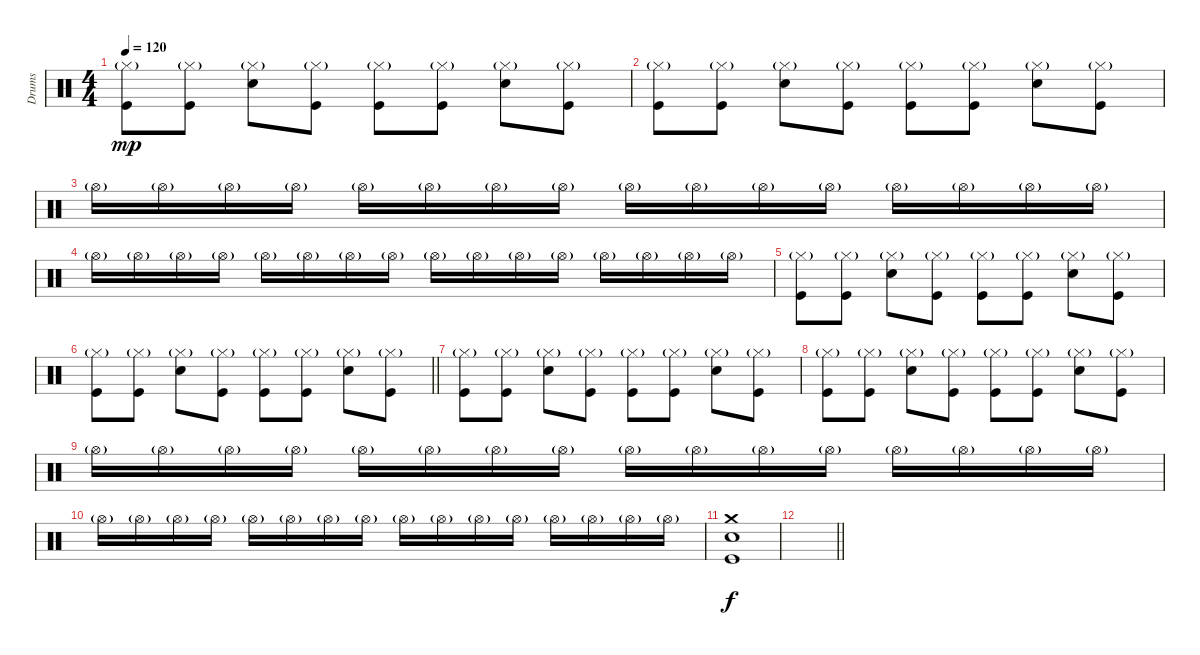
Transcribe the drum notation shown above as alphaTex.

\track ("Drums" "Drums") {instrument percussion}
\staff {score}
\articulation defaults
\ts (4 4)
\tempo 120
\clef neutral
\ks c
("Hi-Hat (closed)"{g} "Kick (hit)").8{dy mp} ("Hi-Hat (closed)"{g} "Kick (hit)").8 ("Hi-Hat (closed)"{g} "Electric Snare (hit)").8 ("Hi-Hat (closed)"{g} "Kick (hit)").8 ("Hi-Hat (closed)"{g} "Kick (hit)").8 ("Hi-Hat (closed)"{g} "Kick (hit)").8 ("Hi-Hat (closed)"{g} "Electric Snare (hit)").8 ("Hi-Hat (closed)"{g} "Kick (hit)").8 |
("Hi-Hat (closed)"{g} "Kick (hit)").8 ("Hi-Hat (closed)"{g} "Kick (hit)").8 ("Hi-Hat (closed)"{g} "Electric Snare (hit)").8 ("Hi-Hat (closed)"{g} "Kick (hit)").8 ("Hi-Hat (closed)"{g} "Kick (hit)").8 ("Hi-Hat (closed)"{g} "Kick (hit)").8 ("Hi-Hat (closed)"{g} "Electric Snare (hit)").8 ("Hi-Hat (closed)"{g} "Kick (hit)").8 |
"Hi-Hat (open)"{g}.16 "Hi-Hat (open)"{g}.16 "Hi-Hat (open)"{g}.16 "Hi-Hat (open)"{g}.16 "Hi-Hat (open)"{g}.16 "Hi-Hat (open)"{g}.16 "Hi-Hat (open)"{g}.16 "Hi-Hat (open)"{g}.16 "Hi-Hat (open)"{g}.16 "Hi-Hat (open)"{g}.16 "Hi-Hat (open)"{g}.16 "Hi-Hat (open)"{g}.16 "Hi-Hat (open)"{g}.16 "Hi-Hat (open)"{g}.16 "Hi-Hat (open)"{g}.16 "Hi-Hat (open)"{g}.16 |
"Hi-Hat (open)"{g}.16 "Hi-Hat (open)"{g}.16 "Hi-Hat (open)"{g}.16 "Hi-Hat (open)"{g}.16 "Hi-Hat (open)"{g}.16 "Hi-Hat (open)"{g}.16 "Hi-Hat (open)"{g}.16 "Hi-Hat (open)"{g}.16 "Hi-Hat (open)"{g}.16 "Hi-Hat (open)"{g}.16 "Hi-Hat (open)"{g}.16 "Hi-Hat (open)"{g}.16 "Hi-Hat (open)"{g}.16 "Hi-Hat (open)"{g}.16 "Hi-Hat (open)"{g}.16 "Hi-Hat (open)"{g}.16 |
("Hi-Hat (closed)"{g} "Kick (hit)").8 ("Hi-Hat (closed)"{g} "Kick (hit)").8 ("Hi-Hat (closed)"{g} "Electric Snare (hit)").8 ("Hi-Hat (closed)"{g} "Kick (hit)").8 ("Hi-Hat (closed)"{g} "Kick (hit)").8 ("Hi-Hat (closed)"{g} "Kick (hit)").8 ("Hi-Hat (closed)"{g} "Electric Snare (hit)").8 ("Hi-Hat (closed)"{g} "Kick (hit)").8 |
\barLineRight lightlight
("Hi-Hat (closed)"{g} "Kick (hit)").8 ("Hi-Hat (closed)"{g} "Kick (hit)").8 ("Hi-Hat (closed)"{g} "Electric Snare (hit)").8 ("Hi-Hat (closed)"{g} "Kick (hit)").8 ("Hi-Hat (closed)"{g} "Kick (hit)").8 ("Hi-Hat (closed)"{g} "Kick (hit)").8 ("Hi-Hat (closed)"{g} "Electric Snare (hit)").8 ("Hi-Hat (closed)"{g} "Kick (hit)").8 |
("Hi-Hat (closed)"{g} "Kick (hit)").8 ("Hi-Hat (closed)"{g} "Kick (hit)").8 ("Hi-Hat (closed)"{g} "Electric Snare (hit)").8 ("Hi-Hat (closed)"{g} "Kick (hit)").8 ("Hi-Hat (closed)"{g} "Kick (hit)").8 ("Hi-Hat (closed)"{g} "Kick (hit)").8 ("Hi-Hat (closed)"{g} "Electric Snare (hit)").8 ("Hi-Hat (closed)"{g} "Kick (hit)").8 |
("Hi-Hat (closed)"{g} "Kick (hit)").8 ("Hi-Hat (closed)"{g} "Kick (hit)").8 ("Hi-Hat (closed)"{g} "Electric Snare (hit)").8 ("Hi-Hat (closed)"{g} "Kick (hit)").8 ("Hi-Hat (closed)"{g} "Kick (hit)").8 ("Hi-Hat (closed)"{g} "Kick (hit)").8 ("Hi-Hat (closed)"{g} "Electric Snare (hit)").8 ("Hi-Hat (closed)"{g} "Kick (hit)").8 |
"Hi-Hat (open)"{g}.16 "Hi-Hat (open)"{g}.16 "Hi-Hat (open)"{g}.16 "Hi-Hat (open)"{g}.16 "Hi-Hat (open)"{g}.16 "Hi-Hat (open)"{g}.16 "Hi-Hat (open)"{g}.16 "Hi-Hat (open)"{g}.16 "Hi-Hat (open)"{g}.16 "Hi-Hat (open)"{g}.16 "Hi-Hat (open)"{g}.16 "Hi-Hat (open)"{g}.16 "Hi-Hat (open)"{g}.16 "Hi-Hat (open)"{g}.16 "Hi-Hat (open)"{g}.16 "Hi-Hat (open)"{g}.16 |
"Hi-Hat (open)"{g}.16 "Hi-Hat (open)"{g}.16 "Hi-Hat (open)"{g}.16 "Hi-Hat (open)"{g}.16 "Hi-Hat (open)"{g}.16 "Hi-Hat (open)"{g}.16 "Hi-Hat (open)"{g}.16 "Hi-Hat (open)"{g}.16 "Hi-Hat (open)"{g}.16 "Hi-Hat (open)"{g}.16 "Hi-Hat (open)"{g}.16 "Hi-Hat (open)"{g}.16 "Hi-Hat (open)"{g}.16 "Hi-Hat (open)"{g}.16 "Hi-Hat (open)"{g}.16 "Hi-Hat (open)"{g}.16 |
("Crash medium (hit)" "Electric Snare (hit)" "Kick (hit)").1{dy f} |
\barLineRight lightlight
